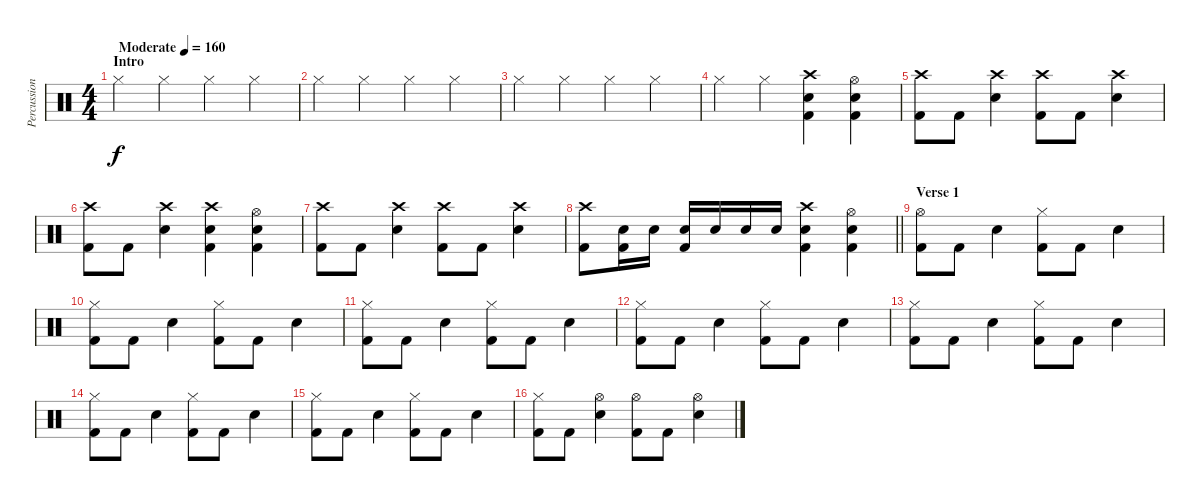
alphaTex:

\track ("Percussion" "Percussion") {instrument percussion}
\staff {score}
\articulation defaults
\ts (4 4)
\section ("" "Intro")
\tempo (160 "Moderate")
\clef neutral
\ks c "Hi-Hat (closed)".4{dy f} "Hi-Hat (closed)".4 "Hi-Hat (closed)".4 "Hi-Hat (closed)".4
|
"Hi-Hat (closed)".4 "Hi-Hat (closed)".4 "Hi-Hat (closed)".4 "Hi-Hat (closed)".4 |
"Hi-Hat (closed)".4 "Hi-Hat (closed)".4 "Hi-Hat (closed)".4 "Hi-Hat (closed)".4 |
"Hi-Hat (closed)".4 "Hi-Hat (closed)".4 ("Crash high (hit)" "Snare (hit) 2" "Kick (hit) 2").4 ("Hi-Hat (open)" "Snare (hit) 2" "Kick (hit) 2").4 |
("Crash high (hit)" "Kick (hit) 2").8 "Kick (hit) 2".8 ("Crash high (hit)" "Snare (hit) 2").4 ("Crash high (hit)" "Kick (hit) 2").8 "Kick (hit) 2".8 ("Crash high (hit)" "Snare (hit) 2").4 |
("Crash high (hit)" "Kick (hit) 2").8 "Kick (hit) 2".8 ("Crash high (hit)" "Snare (hit) 2").4 ("Crash high (hit)" "Snare (hit) 2" "Kick (hit) 2").4 ("Hi-Hat (open)" "Snare (hit) 2" "Kick (hit) 2").4 |
("Crash high (hit)" "Kick (hit) 2").8 "Kick (hit) 2".8 ("Crash high (hit)" "Snare (hit) 2").4 ("Crash high (hit)" "Kick (hit) 2").8 "Kick (hit) 2".8 ("Crash high (hit)" "Snare (hit) 2").4 |
\barLineRight lightlight
("Crash high (hit)" "Kick (hit) 2").8 ("Snare (hit) 2" "Kick (hit) 2").16 "Snare (hit) 2".16 ("Snare (hit) 2" "Kick (hit) 2").16 "Snare (hit) 2".16 "Snare (hit) 2".16 "Snare (hit) 2".16 ("Crash high (hit)" "Snare (hit) 2" "Kick (hit) 2").4 ("Hi-Hat (open)" "Snare (hit) 2" "Kick (hit) 2").4 |
\section ("" "Verse 1")
("Hi-Hat (open)" "Kick (hit) 2").8 "Kick (hit) 2".8 "Snare (hit) 2".4 ("Hi-Hat (closed)" "Kick (hit) 2").8 "Kick (hit) 2".8 "Snare (hit) 2".4 |
("Hi-Hat (closed)" "Kick (hit) 2").8 "Kick (hit) 2".8 "Snare (hit) 2".4 ("Hi-Hat (closed)" "Kick (hit) 2").8 "Kick (hit) 2".8 "Snare (hit) 2".4 |
("Hi-Hat (closed)" "Kick (hit) 2").8 "Kick (hit) 2".8 "Snare (hit) 2".4 ("Hi-Hat (closed)" "Kick (hit) 2").8 "Kick (hit) 2".8 "Snare (hit) 2".4 |
("Hi-Hat (closed)" "Kick (hit) 2").8 "Kick (hit) 2".8 "Snare (hit) 2".4 ("Hi-Hat (closed)" "Kick (hit) 2").8 "Kick (hit) 2".8 "Snare (hit) 2".4 |
("Hi-Hat (closed)" "Kick (hit) 2").8 "Kick (hit) 2".8 "Snare (hit) 2".4 ("Hi-Hat (closed)" "Kick (hit) 2").8 "Kick (hit) 2".8 "Snare (hit) 2".4 |
("Hi-Hat (closed)" "Kick (hit) 2").8 "Kick (hit) 2".8 "Snare (hit) 2".4 ("Hi-Hat (closed)" "Kick (hit) 2").8 "Kick (hit) 2".8 "Snare (hit) 2".4 |
("Hi-Hat (closed)" "Kick (hit) 2").8 "Kick (hit) 2".8 "Snare (hit) 2".4 ("Hi-Hat (closed)" "Kick (hit) 2").8 "Kick (hit) 2".8 "Snare (hit) 2".4 |
("Hi-Hat (closed)" "Kick (hit) 2").8 "Kick (hit) 2".8 ("Hi-Hat (open)" "Snare (hit) 2").4 ("Hi-Hat (open)" "Kick (hit) 2").8 "Kick (hit) 2".8 ("Hi-Hat (open)" "Snare (hit) 2").4
